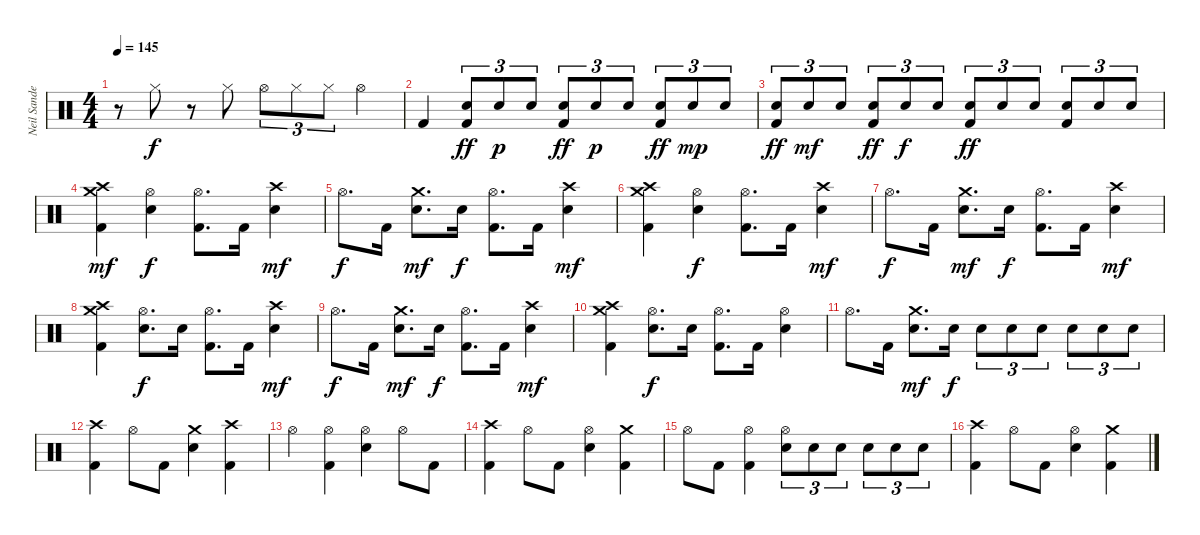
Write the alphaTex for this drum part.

\track ("Neil Sanderson" "Neil Sande") {instrument percussion}
\staff {score}
\articulation defaults
\ts (4 4)
\tempo 145
\clef neutral
\ks c
r.8{dy f} "Hi-Hat (closed)".8 r.8 "Hi-Hat (closed)".8 "Hi-Hat (open)".8{tu (3 2)} "Hi-Hat (closed)".8{tu (3 2)} "Hi-Hat (closed)".8{tu (3 2)} "Hi-Hat (open)".4 |
"Kick (hit) 2".4 ("Snare (hit) 2" "Kick (hit) 2").8{tu (3 2) dy ff} "Snare (hit) 2".8{tu (3 2) dy p} "Snare (hit) 2".8{tu (3 2)} ("Snare (hit) 2" "Kick (hit) 2").8{tu (3 2) dy ff} "Snare (hit) 2".8{tu (3 2) dy p} "Snare (hit) 2".8{tu (3 2)} ("Snare (hit) 2" "Kick (hit) 2").8{tu (3 2) dy ff} "Snare (hit) 2".8{tu (3 2) dy mp} "Snare (hit) 2".8{tu (3 2)} |
("Snare (hit) 2" "Kick (hit) 2").8{tu (3 2) dy ff} "Snare (hit) 2".8{tu (3 2) dy mf} "Snare (hit) 2".8{tu (3 2)} ("Snare (hit) 2" "Kick (hit) 2").8{tu (3 2) dy ff} "Snare (hit) 2".8{tu (3 2) dy f} "Snare (hit) 2".8{tu (3 2)} ("Snare (hit) 2" "Kick (hit) 2").8{tu (3 2) dy ff} "Snare (hit) 2".8{tu (3 2)} "Snare (hit) 2".8{tu (3 2)} ("Snare (hit) 2" "Kick (hit) 2").8{tu (3 2)} "Snare (hit) 2".8{tu (3 2)} "Snare (hit) 2".8{tu (3 2)} |
("Crash high (hit)" "Crash medium (hit)" "Kick (hit) 2").4{dy mf} ("Hi-Hat (open)" "Electric Snare (hit)").4{dy f} ("Hi-Hat (open)" "Kick (hit) 2").8{d} "Kick (hit) 2".16 ("Crash high (hit)" "Electric Snare (hit)").4{dy mf} |
"Hi-Hat (open)".8{d dy f} "Kick (hit) 2".16 ("Crash medium (hit)" "Electric Snare (hit)").8{d dy mf} "Electric Snare (hit)".16{dy f} ("Hi-Hat (open)" "Kick (hit) 2").8{d} "Kick (hit) 2".16 ("Crash high (hit)" "Electric Snare (hit)").4{dy mf} |
("Crash high (hit)" "Crash medium (hit)" "Kick (hit) 2").4 ("Hi-Hat (open)" "Electric Snare (hit)").4{dy f} ("Hi-Hat (open)" "Kick (hit) 2").8{d} "Kick (hit) 2".16 ("Crash high (hit)" "Electric Snare (hit)").4{dy mf} |
"Hi-Hat (open)".8{d dy f} "Kick (hit) 2".16 ("Crash medium (hit)" "Electric Snare (hit)").8{d dy mf} "Electric Snare (hit)".16{dy f} ("Hi-Hat (open)" "Kick (hit) 2").8{d} "Kick (hit) 2".16 ("Crash high (hit)" "Electric Snare (hit)").4{dy mf} |
("Crash high (hit)" "Crash medium (hit)" "Kick (hit) 2").4 ("Hi-Hat (open)" "Electric Snare (hit)").8{d dy f} "Electric Snare (hit)".16 ("Hi-Hat (open)" "Kick (hit) 2").8{d} "Kick (hit) 2".16 ("Crash high (hit)" "Electric Snare (hit)").4{dy mf} |
"Hi-Hat (open)".8{d dy f} "Kick (hit) 2".16 ("Crash medium (hit)" "Electric Snare (hit)").8{d dy mf} "Electric Snare (hit)".16{dy f} ("Hi-Hat (open)" "Kick (hit) 2").8{d} "Kick (hit) 2".16 ("Crash high (hit)" "Electric Snare (hit)").4{dy mf} |
("Crash high (hit)" "Crash medium (hit)" "Kick (hit) 2").4 ("Hi-Hat (open)" "Electric Snare (hit)").8{d dy f} "Electric Snare (hit)".16 ("Hi-Hat (open)" "Kick (hit) 2").8{d} "Kick (hit) 2".16 ("Hi-Hat (open)" "Electric Snare (hit)").4 |
"Hi-Hat (open)".8{d} "Kick (hit) 2".16 ("Crash medium (hit)" "Electric Snare (hit)").8{d dy mf} "Electric Snare (hit)".16{dy f} "Electric Snare (hit)".8{tu (3 2)} "Electric Snare (hit)".8{tu (3 2)} "Electric Snare (hit)".8{tu (3 2)} "Electric Snare (hit)".8{tu (3 2)} "Electric Snare (hit)".8{tu (3 2)} "Electric Snare (hit)".8{tu (3 2)} |
("Crash high (hit)" "Kick (hit) 2").4 "Hi-Hat (open)".8 "Kick (hit) 2".8 ("Crash medium (hit)" "Electric Snare (hit)").4 ("Crash high (hit)" "Kick (hit) 2").4 |
"Hi-Hat (open)".4 ("Hi-Hat (open)" "Kick (hit) 2").4 ("Hi-Hat (open)" "Electric Snare (hit)").4 "Hi-Hat (open)".8 "Kick (hit) 2".8 |
("Crash high (hit)" "Kick (hit) 2").4 "Hi-Hat (open)".8 "Kick (hit) 2".8 ("Hi-Hat (open)" "Electric Snare (hit)").4 ("Crash medium (hit)" "Kick (hit) 2").4 |
"Hi-Hat (open)".8 "Kick (hit) 2".8 ("Hi-Hat (open)" "Kick (hit) 2").4 ("Hi-Hat (open)" "Electric Snare (hit)").8{tu (3 2)} "Electric Snare (hit)".8{tu (3 2)} "Electric Snare (hit)".8{tu (3 2)} "Electric Snare (hit)".8{tu (3 2)} "Electric Snare (hit)".8{tu (3 2)} "Electric Snare (hit)".8{tu (3 2)} |
("Crash high (hit)" "Kick (hit) 2").4 "Hi-Hat (open)".8 "Kick (hit) 2".8 ("Hi-Hat (open)" "Electric Snare (hit)").4 ("Crash medium (hit)" "Kick (hit) 2").4
